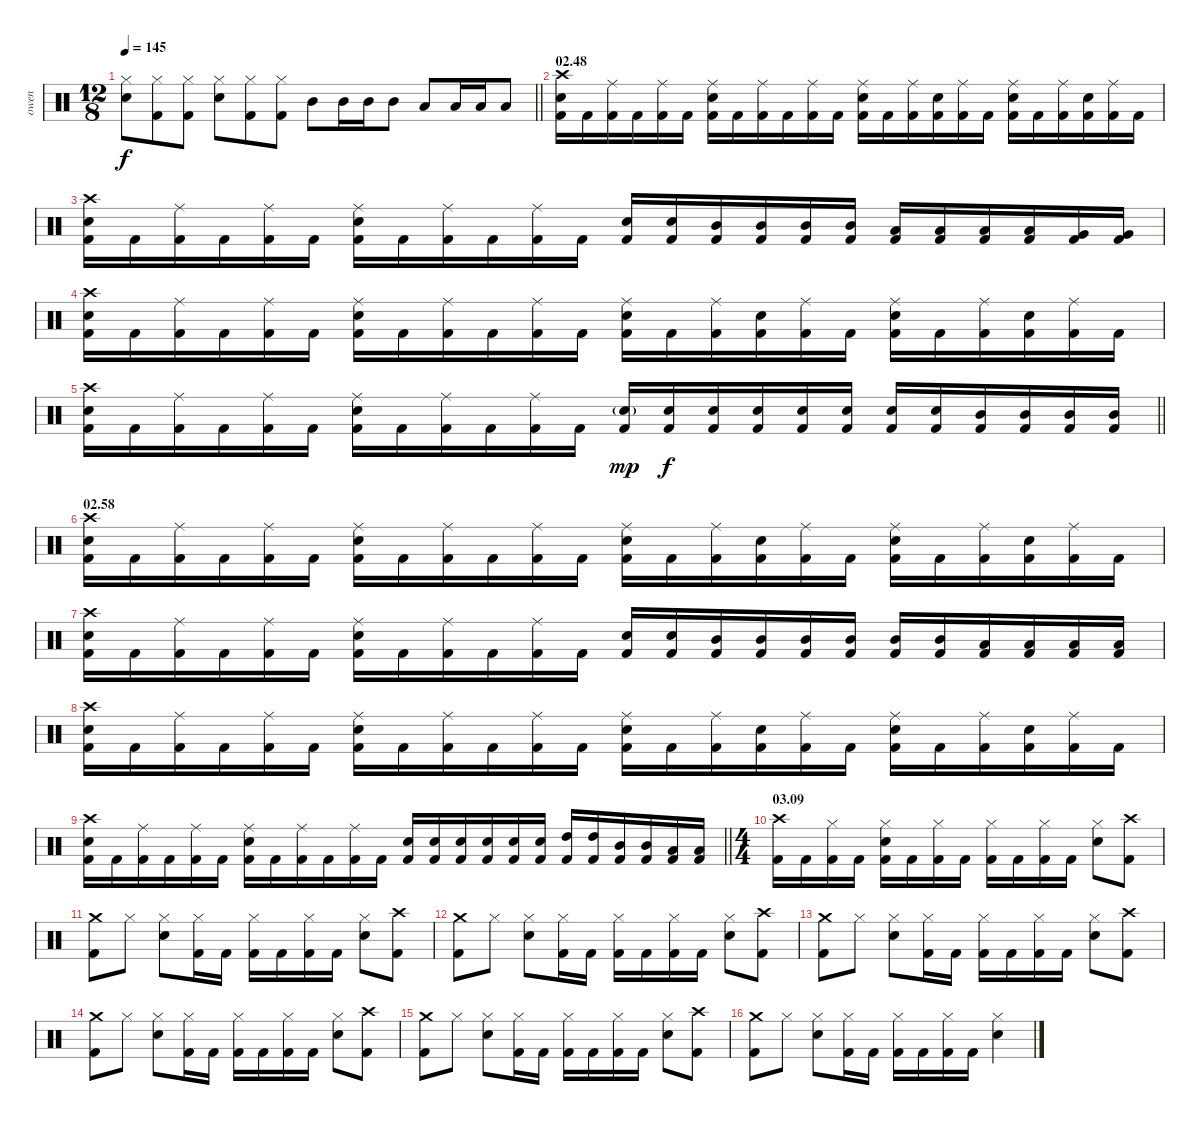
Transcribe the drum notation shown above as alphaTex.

\track ("owen" "owen") {instrument percussion}
\staff {score}
\articulation defaults
\ts (12 8)
\tempo 145
\clef neutral
\barLineRight lightlight
\ks c
("Hi-Hat (closed)" "Snare (hit) 2").8{dy f} ("Hi-Hat (closed)" "Kick (hit) 2").8 ("Hi-Hat (closed)" "Kick (hit) 2").8 ("Hi-Hat (closed)" "Snare (hit) 2").8 ("Hi-Hat (closed)" "Kick (hit) 2").8 ("Hi-Hat (closed)" "Kick (hit) 2").8 "Mid Tom (hit)".8 "Mid Tom (hit)".16 "Mid Tom (hit)".16 "Mid Tom (hit)".8 "Low Tom (hit)".8 "Low Tom (hit)".16 "Low Tom (hit)".16 "Low Tom (hit)".8 |
\section ("" "02.48")
("Crash high (hit)" "Snare (hit) 2" "Kick (hit) 2").16 "Kick (hit) 2".16 ("Ride (middle)" "Kick (hit) 2").16 "Kick (hit) 2".16 ("Ride (middle)" "Kick (hit) 2").16 "Kick (hit) 2".16 ("Ride (middle)" "Snare (hit) 2" "Kick (hit) 2").16 "Kick (hit) 2".16 ("Ride (middle)" "Kick (hit) 2").16 "Kick (hit) 2".16 ("Ride (middle)" "Kick (hit) 2").16 "Kick (hit) 2".16 ("Ride (middle)" "Snare (hit) 2" "Kick (hit) 2").16 "Kick (hit) 2".16 ("Ride (middle)" "Kick (hit) 2").16 ("Snare (hit) 2" "Kick (hit) 2").16 ("Ride (middle)" "Kick (hit) 2").16 "Kick (hit) 2".16 ("Ride (middle)" "Snare (hit) 2" "Kick (hit) 2").16 "Kick (hit) 2".16 ("Ride (middle)" "Kick (hit) 2").16 ("Snare (hit) 2" "Kick (hit) 2").16 ("Ride (middle)" "Kick (hit) 2").16 "Kick (hit) 2".16 |
("Crash high (hit)" "Snare (hit) 2" "Kick (hit) 2").16 "Kick (hit) 2".16 ("Ride (middle)" "Kick (hit) 2").16 "Kick (hit) 2".16 ("Ride (middle)" "Kick (hit) 2").16 "Kick (hit) 2".16 ("Ride (middle)" "Snare (hit) 2" "Kick (hit) 2").16 "Kick (hit) 2".16 ("Ride (middle)" "Kick (hit) 2").16 "Kick (hit) 2".16 ("Ride (middle)" "Kick (hit) 2").16 "Kick (hit) 2".16 ("Snare (hit) 2" "Kick (hit) 2").16 ("Snare (hit) 2" "Kick (hit) 2").16 ("Mid Tom (hit)" "Kick (hit) 2").16 ("Mid Tom (hit)" "Kick (hit) 2").16 ("Mid Tom (hit)" "Kick (hit) 2").16 ("Mid Tom (hit)" "Kick (hit) 2").16 ("Low Tom (hit)" "Kick (hit) 2").16 ("Low Tom (hit)" "Kick (hit) 2").16 ("Low Tom (hit)" "Kick (hit) 2").16 ("Low Tom (hit)" "Kick (hit) 2").16 ("Very Low Tom (hit)" "Kick (hit) 2").16 ("Very Low Tom (hit)" "Kick (hit) 2").16 |
("Crash high (hit)" "Snare (hit) 2" "Kick (hit) 2").16 "Kick (hit) 2".16 ("Ride (middle)" "Kick (hit) 2").16 "Kick (hit) 2".16 ("Ride (middle)" "Kick (hit) 2").16 "Kick (hit) 2".16 ("Ride (middle)" "Snare (hit) 2" "Kick (hit) 2").16 "Kick (hit) 2".16 ("Ride (middle)" "Kick (hit) 2").16 "Kick (hit) 2".16 ("Ride (middle)" "Kick (hit) 2").16 "Kick (hit) 2".16 ("Ride (middle)" "Snare (hit) 2" "Kick (hit) 2").16 "Kick (hit) 2".16 ("Ride (middle)" "Kick (hit) 2").16 ("Snare (hit) 2" "Kick (hit) 2").16 ("Ride (middle)" "Kick (hit) 2").16 "Kick (hit) 2".16 ("Ride (middle)" "Snare (hit) 2" "Kick (hit) 2").16 "Kick (hit) 2".16 ("Ride (middle)" "Kick (hit) 2").16 ("Snare (hit) 2" "Kick (hit) 2").16 ("Ride (middle)" "Kick (hit) 2").16 "Kick (hit) 2".16 |
\barLineRight lightlight
("Crash high (hit)" "Snare (hit) 2" "Kick (hit) 2").16 "Kick (hit) 2".16 ("Ride (middle)" "Kick (hit) 2").16 "Kick (hit) 2".16 ("Ride (middle)" "Kick (hit) 2").16 "Kick (hit) 2".16 ("Ride (middle)" "Snare (hit) 2" "Kick (hit) 2").16 "Kick (hit) 2".16 ("Ride (middle)" "Kick (hit) 2").16 "Kick (hit) 2".16 ("Ride (middle)" "Kick (hit) 2").16 "Kick (hit) 2".16 ("Snare (hit) 2"{g} "Kick (hit) 2").16{dy mp} ("Snare (hit) 2" "Kick (hit) 2").16{dy f} ("Snare (hit) 2" "Kick (hit) 2").16 ("Snare (hit) 2" "Kick (hit) 2").16 ("Snare (hit) 2" "Kick (hit) 2").16 ("Snare (hit) 2" "Kick (hit) 2").16 ("Snare (hit) 2" "Kick (hit) 2").16 ("Snare (hit) 2" "Kick (hit) 2").16 ("Mid Tom (hit)" "Kick (hit) 2").16 ("Mid Tom (hit)" "Kick (hit) 2").16 ("Mid Tom (hit)" "Kick (hit) 2").16 ("Mid Tom (hit)" "Kick (hit) 2").16 |
\section ("" "02.58")
("Crash high (hit)" "Snare (hit) 2" "Kick (hit) 2").16 "Kick (hit) 2".16 ("Ride (middle)" "Kick (hit) 2").16 "Kick (hit) 2".16 ("Ride (middle)" "Kick (hit) 2").16 "Kick (hit) 2".16 ("Ride (middle)" "Snare (hit) 2" "Kick (hit) 2").16 "Kick (hit) 2".16 ("Ride (middle)" "Kick (hit) 2").16 "Kick (hit) 2".16 ("Ride (middle)" "Kick (hit) 2").16 "Kick (hit) 2".16 ("Ride (middle)" "Snare (hit) 2" "Kick (hit) 2").16 "Kick (hit) 2".16 ("Ride (middle)" "Kick (hit) 2").16 ("Snare (hit) 2" "Kick (hit) 2").16 ("Ride (middle)" "Kick (hit) 2").16 "Kick (hit) 2".16 ("Ride (middle)" "Snare (hit) 2" "Kick (hit) 2").16 "Kick (hit) 2".16 ("Ride (middle)" "Kick (hit) 2").16 ("Snare (hit) 2" "Kick (hit) 2").16 ("Ride (middle)" "Kick (hit) 2").16 "Kick (hit) 2".16 |
("Crash high (hit)" "Snare (hit) 2" "Kick (hit) 2").16 "Kick (hit) 2".16 ("Ride (middle)" "Kick (hit) 2").16 "Kick (hit) 2".16 ("Ride (middle)" "Kick (hit) 2").16 "Kick (hit) 2".16 ("Ride (middle)" "Snare (hit) 2" "Kick (hit) 2").16 "Kick (hit) 2".16 ("Ride (middle)" "Kick (hit) 2").16 "Kick (hit) 2".16 ("Ride (middle)" "Kick (hit) 2").16 "Kick (hit) 2".16 ("Snare (hit) 2" "Kick (hit) 2").16 ("Snare (hit) 2" "Kick (hit) 2").16 ("Mid Tom (hit)" "Kick (hit) 2").16 ("Mid Tom (hit)" "Kick (hit) 2").16 ("Mid Tom (hit)" "Kick (hit) 2").16 ("Mid Tom (hit)" "Kick (hit) 2").16 ("Mid Tom (hit)" "Kick (hit) 2").16 ("Mid Tom (hit)" "Kick (hit) 2").16 ("Low Tom (hit)" "Kick (hit) 2").16 ("Low Tom (hit)" "Kick (hit) 2").16 ("Low Tom (hit)" "Kick (hit) 2").16 ("Low Tom (hit)" "Kick (hit) 2").16 |
("Crash high (hit)" "Snare (hit) 2" "Kick (hit) 2").16 "Kick (hit) 2".16 ("Ride (middle)" "Kick (hit) 2").16 "Kick (hit) 2".16 ("Ride (middle)" "Kick (hit) 2").16 "Kick (hit) 2".16 ("Ride (middle)" "Snare (hit) 2" "Kick (hit) 2").16 "Kick (hit) 2".16 ("Ride (middle)" "Kick (hit) 2").16 "Kick (hit) 2".16 ("Ride (middle)" "Kick (hit) 2").16 "Kick (hit) 2".16 ("Ride (middle)" "Snare (hit) 2" "Kick (hit) 2").16 "Kick (hit) 2".16 ("Ride (middle)" "Kick (hit) 2").16 ("Snare (hit) 2" "Kick (hit) 2").16 ("Ride (middle)" "Kick (hit) 2").16 "Kick (hit) 2".16 ("Ride (middle)" "Snare (hit) 2" "Kick (hit) 2").16 "Kick (hit) 2".16 ("Ride (middle)" "Kick (hit) 2").16 ("Snare (hit) 2" "Kick (hit) 2").16 ("Ride (middle)" "Kick (hit) 2").16 "Kick (hit) 2".16 |
\barLineRight lightlight
("Crash high (hit)" "Snare (hit) 2" "Kick (hit) 2").16 "Kick (hit) 2".16 ("Ride (middle)" "Kick (hit) 2").16 "Kick (hit) 2".16 ("Ride (middle)" "Kick (hit) 2").16 "Kick (hit) 2".16 ("Ride (middle)" "Snare (hit) 2" "Kick (hit) 2").16 "Kick (hit) 2".16 ("Ride (middle)" "Kick (hit) 2").16 "Kick (hit) 2".16 ("Ride (middle)" "Kick (hit) 2").16 "Kick (hit) 2".16 ("Snare (hit) 2" "Kick (hit) 2").16 ("Snare (hit) 2" "Kick (hit) 2").16 ("Snare (hit) 2" "Kick (hit) 2").16 ("Snare (hit) 2" "Kick (hit) 2").16 ("Snare (hit) 2" "Kick (hit) 2").16 ("Snare (hit) 2" "Kick (hit) 2").16 ("High Tom (hit)" "Kick (hit) 2").16 ("High Tom (hit)" "Kick (hit) 2").16 ("Mid Tom (hit)" "Kick (hit) 2").16 ("Mid Tom (hit)" "Kick (hit) 2").16 ("Low Tom (hit)" "Kick (hit) 2").16 ("Low Tom (hit)" "Kick (hit) 2").16 |
\ts (4 4)
\section ("" "03.09")
("Crash high (hit)" "Kick (hit) 2").16 "Kick (hit) 2".16 ("Hi-Hat (closed)" "Kick (hit) 2").16 "Kick (hit) 2".16 ("Hi-Hat (closed)" "Snare (hit) 2" "Kick (hit) 2").16 "Kick (hit) 2".16 ("Hi-Hat (closed)" "Kick (hit) 2").16 "Kick (hit) 2".16 ("Hi-Hat (closed)" "Kick (hit) 2").16 "Kick (hit) 2".16 ("Hi-Hat (closed)" "Kick (hit) 2").16 "Kick (hit) 2".16 ("Hi-Hat (closed)" "Snare (hit) 2").8 ("Crash high (hit)" "Kick (hit) 2").8 |
("Crash medium (hit)" "Kick (hit) 2").8 "Hi-Hat (closed)".8 ("Hi-Hat (closed)" "Snare (hit) 2").8 ("Hi-Hat (closed)" "Kick (hit) 2").16 "Kick (hit) 2".16 ("Hi-Hat (closed)" "Kick (hit) 2").16 "Kick (hit) 2".16 ("Hi-Hat (closed)" "Kick (hit) 2").16 "Kick (hit) 2".16 ("Hi-Hat (closed)" "Snare (hit) 2").8 ("Crash high (hit)" "Kick (hit) 2").8 |
("Crash medium (hit)" "Kick (hit) 2").8 "Hi-Hat (closed)".8 ("Hi-Hat (closed)" "Snare (hit) 2").8 ("Hi-Hat (closed)" "Kick (hit) 2").16 "Kick (hit) 2".16 ("Hi-Hat (closed)" "Kick (hit) 2").16 "Kick (hit) 2".16 ("Hi-Hat (closed)" "Kick (hit) 2").16 "Kick (hit) 2".16 ("Hi-Hat (closed)" "Snare (hit) 2").8 ("Crash high (hit)" "Kick (hit) 2").8 |
("Crash medium (hit)" "Kick (hit) 2").8 "Hi-Hat (closed)".8 ("Hi-Hat (closed)" "Snare (hit) 2").8 ("Hi-Hat (closed)" "Kick (hit) 2").16 "Kick (hit) 2".16 ("Hi-Hat (closed)" "Kick (hit) 2").16 "Kick (hit) 2".16 ("Hi-Hat (closed)" "Kick (hit) 2").16 "Kick (hit) 2".16 ("Hi-Hat (closed)" "Snare (hit) 2").8 ("Crash high (hit)" "Kick (hit) 2").8 |
("Crash medium (hit)" "Kick (hit) 2").8 "Hi-Hat (closed)".8 ("Hi-Hat (closed)" "Snare (hit) 2").8 ("Hi-Hat (closed)" "Kick (hit) 2").16 "Kick (hit) 2".16 ("Hi-Hat (closed)" "Kick (hit) 2").16 "Kick (hit) 2".16 ("Hi-Hat (closed)" "Kick (hit) 2").16 "Kick (hit) 2".16 ("Hi-Hat (closed)" "Snare (hit) 2").8 ("Crash high (hit)" "Kick (hit) 2").8 |
("Crash medium (hit)" "Kick (hit) 2").8 "Hi-Hat (closed)".8 ("Hi-Hat (closed)" "Snare (hit) 2").8 ("Hi-Hat (closed)" "Kick (hit) 2").16 "Kick (hit) 2".16 ("Hi-Hat (closed)" "Kick (hit) 2").16 "Kick (hit) 2".16 ("Hi-Hat (closed)" "Kick (hit) 2").16 "Kick (hit) 2".16 ("Hi-Hat (closed)" "Snare (hit) 2").8 ("Crash high (hit)" "Kick (hit) 2").8 |
("Crash medium (hit)" "Kick (hit) 2").8 "Hi-Hat (closed)".8 ("Hi-Hat (closed)" "Snare (hit) 2").8 ("Hi-Hat (closed)" "Kick (hit) 2").16 "Kick (hit) 2".16 ("Hi-Hat (closed)" "Kick (hit) 2").16 "Kick (hit) 2".16 ("Hi-Hat (closed)" "Kick (hit) 2").16 "Kick (hit) 2".16 ("Hi-Hat (closed)" "Snare (hit) 2").4
